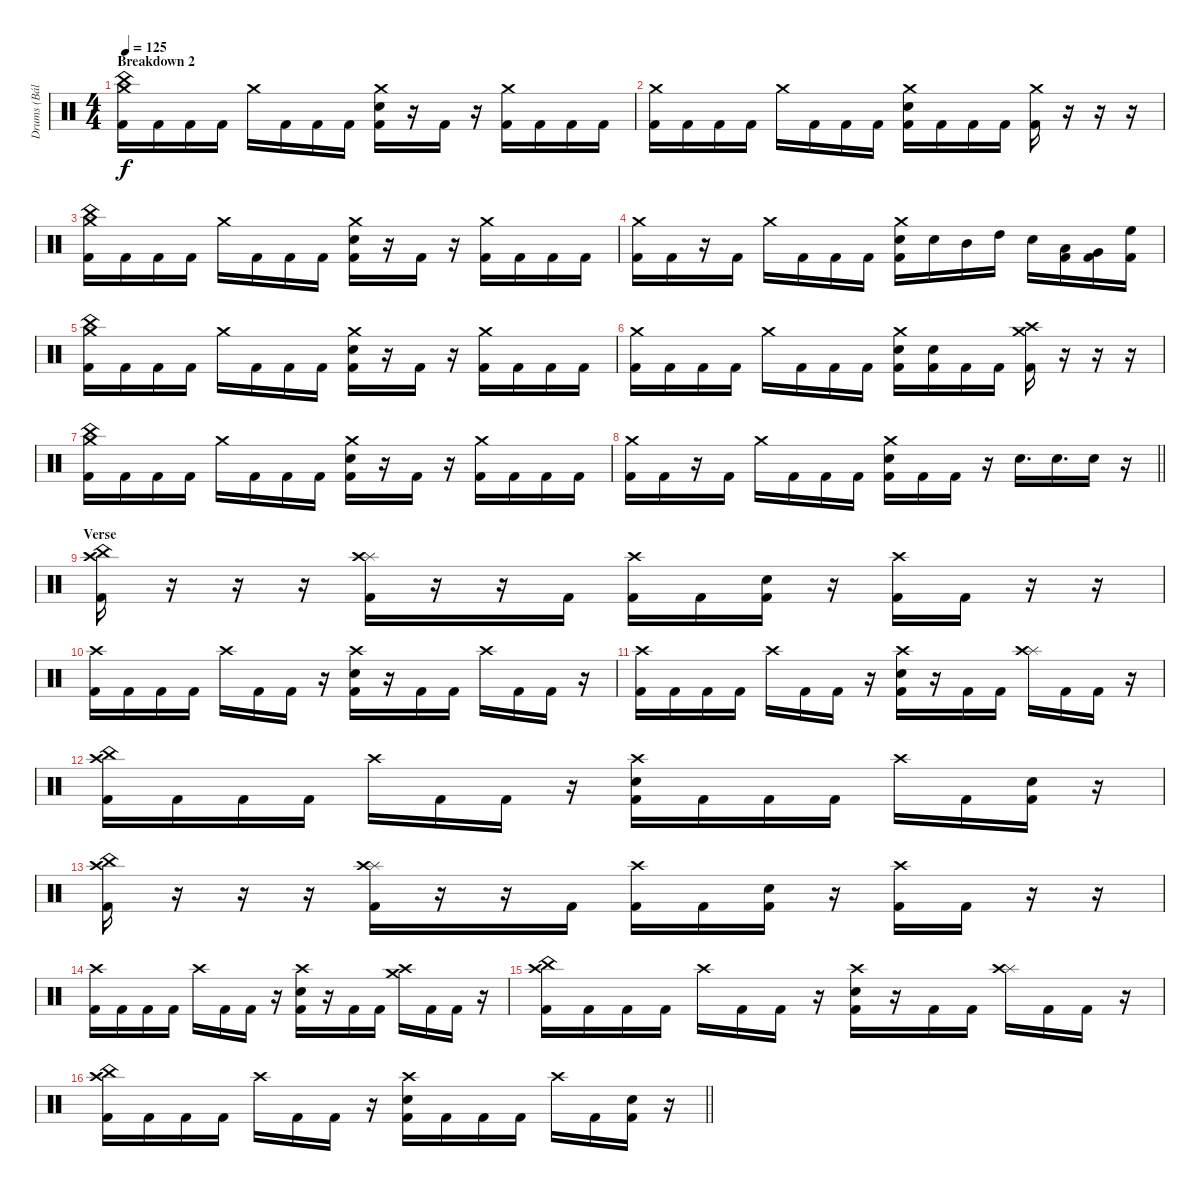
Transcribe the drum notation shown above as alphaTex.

\track ("Drums (Bálint)" "Drums (Bál") {instrument percussion}
\staff {score}
\articulation defaults
\ts (4 4)
\section ("" "Breakdown 2")
\tempo 125
\clef neutral
\ks c
("China (hit)" "Crash medium (hit)" "Kick (hit) 2").16{dy f} "Kick (hit) 2".16 "Kick (hit) 2".16 "Kick (hit) 2".16 "Crash medium (hit)".16 "Kick (hit) 2".16 "Kick (hit) 2".16 "Kick (hit) 2".16 ("Crash medium (hit)" "Electric Snare (hit)" "Kick (hit) 2").16 r.16 "Kick (hit) 2".16 r.16 ("Crash medium (hit)" "Kick (hit) 2").16 "Kick (hit) 2".16 "Kick (hit) 2".16 "Kick (hit) 2".16 |
("Crash medium (hit)" "Kick (hit) 2").16 "Kick (hit) 2".16 "Kick (hit) 2".16 "Kick (hit) 2".16 "Crash medium (hit)".16 "Kick (hit) 2".16 "Kick (hit) 2".16 "Kick (hit) 2".16 ("Crash medium (hit)" "Electric Snare (hit)" "Kick (hit) 2").16 "Kick (hit) 2".16 "Kick (hit) 2".16 "Kick (hit) 2".16 ("Crash medium (hit)" "Kick (hit) 2").16 r.16 r.16 r.16 |
("China (hit)" "Crash medium (hit)" "Kick (hit) 2").16 "Kick (hit) 2".16 "Kick (hit) 2".16 "Kick (hit) 2".16 "Crash medium (hit)".16 "Kick (hit) 2".16 "Kick (hit) 2".16 "Kick (hit) 2".16 ("Crash medium (hit)" "Electric Snare (hit)" "Kick (hit) 2").16 r.16 "Kick (hit) 2".16 r.16 ("Crash medium (hit)" "Kick (hit) 2").16 "Kick (hit) 2".16 "Kick (hit) 2".16 "Kick (hit) 2".16 |
("Crash medium (hit)" "Kick (hit) 2").16 "Kick (hit) 2".16 r.16 "Kick (hit) 2".16 "Crash medium (hit)".16 "Kick (hit) 2".16 "Kick (hit) 2".16 "Kick (hit) 2".16 ("Crash medium (hit)" "Electric Snare (hit)" "Kick (hit) 2").16 "Electric Snare (hit)".16 "Mid Tom (hit)".16 "High Tom (hit)".16 "Electric Snare (hit)".16 ("Low Floor Tom (hit)" "Kick (hit) 2").16 ("Very Low Tom (hit)" "Kick (hit) 2").16 ("High Floor Tom (hit)" "Kick (hit) 2").16 |
("China (hit)" "Crash medium (hit)" "Kick (hit) 2").16 "Kick (hit) 2".16 "Kick (hit) 2".16 "Kick (hit) 2".16 "Crash medium (hit)".16 "Kick (hit) 2".16 "Kick (hit) 2".16 "Kick (hit) 2".16 ("Crash medium (hit)" "Electric Snare (hit)" "Kick (hit) 2").16 r.16 "Kick (hit) 2".16 r.16 ("Crash medium (hit)" "Kick (hit) 2").16 "Kick (hit) 2".16 "Kick (hit) 2".16 "Kick (hit) 2".16 |
("Crash medium (hit)" "Kick (hit) 2").16 "Kick (hit) 2".16 "Kick (hit) 2".16 "Kick (hit) 2".16 "Crash medium (hit)".16 "Kick (hit) 2".16 "Kick (hit) 2".16 "Kick (hit) 2".16 ("Crash medium (hit)" "Electric Snare (hit)" "Kick (hit) 2").16 ("Electric Snare (hit)" "Kick (hit) 2").16 "Kick (hit) 2".16 "Kick (hit) 2".16 ("Crash high (hit)" "Crash medium (hit)" "Kick (hit) 2").16 r.16 r.16 r.16 |
("China (hit)" "Crash medium (hit)" "Kick (hit) 2").16 "Kick (hit) 2".16 "Kick (hit) 2".16 "Kick (hit) 2".16 "Crash medium (hit)".16 "Kick (hit) 2".16 "Kick (hit) 2".16 "Kick (hit) 2".16 ("Crash medium (hit)" "Electric Snare (hit)" "Kick (hit) 2").16 r.16 "Kick (hit) 2".16 r.16 ("Crash medium (hit)" "Kick (hit) 2").16 "Kick (hit) 2".16 "Kick (hit) 2".16 "Kick (hit) 2".16 |
\barLineRight lightlight
("Crash medium (hit)" "Kick (hit) 2").16 "Kick (hit) 2".16 r.16 "Kick (hit) 2".16 "Crash medium (hit)".16 "Kick (hit) 2".16 "Kick (hit) 2".16 "Kick (hit) 2".16 ("Crash medium (hit)" "Electric Snare (hit)" "Kick (hit) 2").16 "Kick (hit) 2".16 "Kick (hit) 2".16 r.16 "Electric Snare (hit)".16{d} "Electric Snare (hit)".16{d} "Electric Snare (hit)".16 r.16 |
\section ("" "Verse")
("China (hit)" "Crash high (hit)" "Kick (hit) 2").16 r.16 r.16 r.16 ("Splash (hit)" "Crash high (hit)" "Kick (hit) 2").16 r.16 r.16 "Kick (hit) 2".16 ("Crash high (hit)" "Kick (hit) 2").16 "Kick (hit) 2".16 ("Electric Snare (hit)" "Kick (hit) 2").16 r.16 ("Crash high (hit)" "Kick (hit) 2").16 "Kick (hit) 2".16 r.16 r.16 |
("Crash high (hit)" "Kick (hit) 2").16 "Kick (hit) 2".16 "Kick (hit) 2".16 "Kick (hit) 2".16 "Crash high (hit)".16 "Kick (hit) 2".16 "Kick (hit) 2".16 r.16 ("Crash high (hit)" "Electric Snare (hit)" "Kick (hit) 2").16 r.16 "Kick (hit) 2".16 "Kick (hit) 2".16 "Crash high (hit)".16 "Kick (hit) 2".16 "Kick (hit) 2".16 r.16 |
("Crash high (hit)" "Kick (hit) 2").16 "Kick (hit) 2".16 "Kick (hit) 2".16 "Kick (hit) 2".16 "Crash high (hit)".16 "Kick (hit) 2".16 "Kick (hit) 2".16 r.16 ("Crash high (hit)" "Electric Snare (hit)" "Kick (hit) 2").16 r.16 "Kick (hit) 2".16 "Kick (hit) 2".16 ("Splash (hit)" "Crash high (hit)").16 "Kick (hit) 2".16 "Kick (hit) 2".16 r.16 |
("China (hit)" "Crash high (hit)" "Kick (hit) 2").16 "Kick (hit) 2".16 "Kick (hit) 2".16 "Kick (hit) 2".16 "Crash high (hit)".16 "Kick (hit) 2".16 "Kick (hit) 2".16 r.16 ("Crash high (hit)" "Electric Snare (hit)" "Kick (hit) 2").16 "Kick (hit) 2".16 "Kick (hit) 2".16 "Kick (hit) 2".16 "Crash high (hit)".16 "Kick (hit) 2".16 ("Electric Snare (hit)" "Kick (hit) 2").16 r.16 |
("China (hit)" "Crash high (hit)" "Kick (hit) 2").16 r.16 r.16 r.16 ("Splash (hit)" "Crash high (hit)" "Kick (hit) 2").16 r.16 r.16 "Kick (hit) 2".16 ("Crash high (hit)" "Kick (hit) 2").16 "Kick (hit) 2".16 ("Electric Snare (hit)" "Kick (hit) 2").16 r.16 ("Crash high (hit)" "Kick (hit) 2").16 "Kick (hit) 2".16 r.16 r.16 |
("Crash high (hit)" "Kick (hit) 2").16 "Kick (hit) 2".16 "Kick (hit) 2".16 "Kick (hit) 2".16 "Crash high (hit)".16 "Kick (hit) 2".16 "Kick (hit) 2".16 r.16 ("Crash high (hit)" "Electric Snare (hit)" "Kick (hit) 2").16 r.16 "Kick (hit) 2".16 "Kick (hit) 2".16 ("Crash medium (hit)" "Crash high (hit)").16 "Kick (hit) 2".16 "Kick (hit) 2".16 r.16 |
("China (hit)" "Crash high (hit)" "Kick (hit) 2").16 "Kick (hit) 2".16 "Kick (hit) 2".16 "Kick (hit) 2".16 "Crash high (hit)".16 "Kick (hit) 2".16 "Kick (hit) 2".16 r.16 ("Crash high (hit)" "Electric Snare (hit)" "Kick (hit) 2").16 r.16 "Kick (hit) 2".16 "Kick (hit) 2".16 ("Splash (hit)" "Crash high (hit)").16 "Kick (hit) 2".16 "Kick (hit) 2".16 r.16 |
\barLineRight lightlight
("China (hit)" "Crash high (hit)" "Kick (hit) 2").16 "Kick (hit) 2".16 "Kick (hit) 2".16 "Kick (hit) 2".16 "Crash high (hit)".16 "Kick (hit) 2".16 "Kick (hit) 2".16 r.16 ("Crash high (hit)" "Electric Snare (hit)" "Kick (hit) 2").16 "Kick (hit) 2".16 "Kick (hit) 2".16 "Kick (hit) 2".16 "Crash high (hit)".16 "Kick (hit) 2".16 ("Electric Snare (hit)" "Kick (hit) 2").16 r.16
